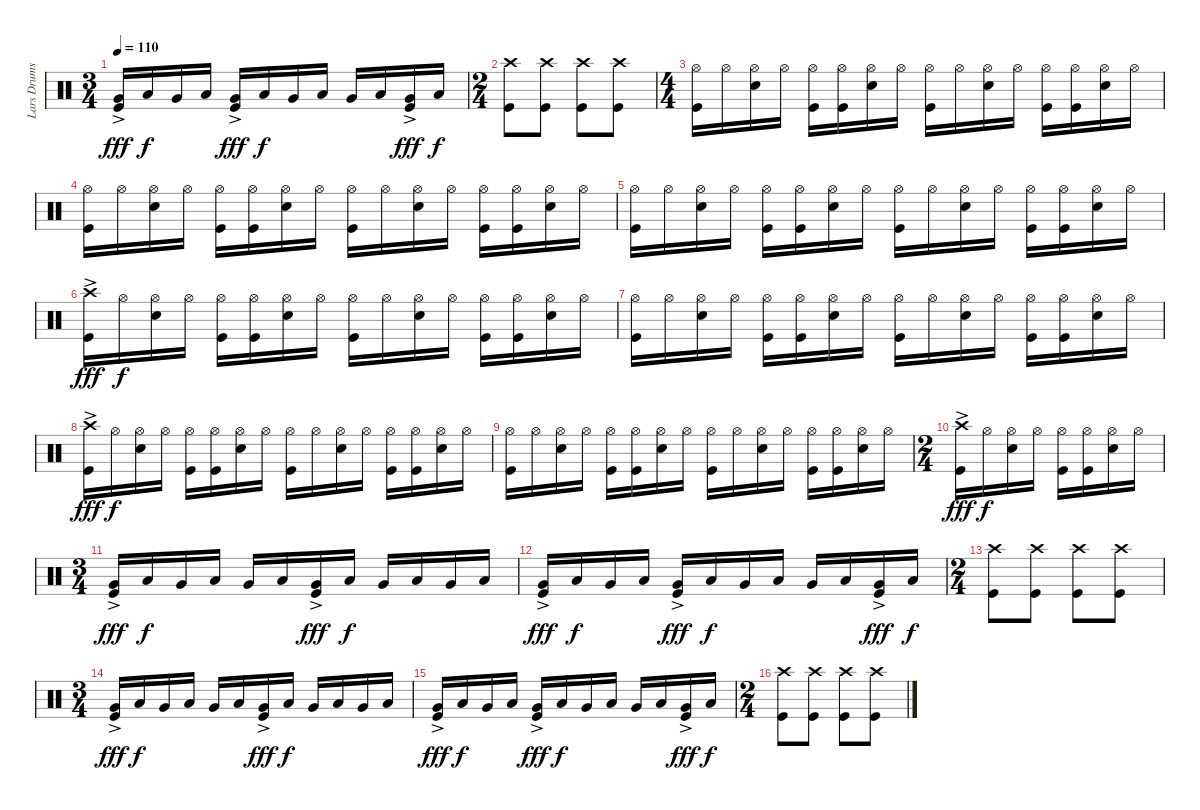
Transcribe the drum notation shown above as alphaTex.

\track ("Lars Drums" "Lars Drums") {instrument percussion}
\staff {score}
\articulation defaults
\ts (3 4)
\tempo 110
\clef neutral
\ks c
("Kick (hit)"{ac} "Very Low Tom (hit)").16{dy fff} "Low Floor Tom (hit)".16{dy f} "Very Low Tom (hit)".16 "Low Floor Tom (hit)".16 ("Kick (hit)"{ac} "Very Low Tom (hit)").16{dy fff} "Low Floor Tom (hit)".16{dy f} "Very Low Tom (hit)".16 "Low Floor Tom (hit)".16 "Very Low Tom (hit)".16 "Low Floor Tom (hit)".16 ("Kick (hit)"{ac} "Very Low Tom (hit)").16{dy fff} "Low Floor Tom (hit)".16{dy f} |
\ts (2 4)
("Crash high (hit)" "Kick (hit)").8 ("Crash high (hit)" "Kick (hit)").8 ("Crash high (hit)" "Kick (hit)").8 ("Crash high (hit)" "Kick (hit)").8 |
\ts (4 4)
("Hi-Hat (open)" "Kick (hit)").16 "Hi-Hat (open)".16 ("Hi-Hat (open)" "Electric Snare (hit)").16 "Hi-Hat (open)".16 ("Hi-Hat (open)" "Kick (hit)").16 ("Hi-Hat (open)" "Kick (hit)").16 ("Hi-Hat (open)" "Electric Snare (hit)").16 "Hi-Hat (open)".16 ("Hi-Hat (open)" "Kick (hit)").16 "Hi-Hat (open)".16 ("Hi-Hat (open)" "Electric Snare (hit)").16 "Hi-Hat (open)".16 ("Hi-Hat (open)" "Kick (hit)").16 ("Hi-Hat (open)" "Kick (hit)").16 ("Hi-Hat (open)" "Electric Snare (hit)").16 "Hi-Hat (open)".16 |
("Hi-Hat (open)" "Kick (hit)").16 "Hi-Hat (open)".16 ("Hi-Hat (open)" "Electric Snare (hit)").16 "Hi-Hat (open)".16 ("Hi-Hat (open)" "Kick (hit)").16 ("Hi-Hat (open)" "Kick (hit)").16 ("Hi-Hat (open)" "Electric Snare (hit)").16 "Hi-Hat (open)".16 ("Hi-Hat (open)" "Kick (hit)").16 "Hi-Hat (open)".16 ("Hi-Hat (open)" "Electric Snare (hit)").16 "Hi-Hat (open)".16 ("Hi-Hat (open)" "Kick (hit)").16 ("Hi-Hat (open)" "Kick (hit)").16 ("Hi-Hat (open)" "Electric Snare (hit)").16 "Hi-Hat (open)".16 |
("Hi-Hat (open)" "Kick (hit)").16 "Hi-Hat (open)".16 ("Hi-Hat (open)" "Electric Snare (hit)").16 "Hi-Hat (open)".16 ("Hi-Hat (open)" "Kick (hit)").16 ("Hi-Hat (open)" "Kick (hit)").16 ("Hi-Hat (open)" "Electric Snare (hit)").16 "Hi-Hat (open)".16 ("Hi-Hat (open)" "Kick (hit)").16 "Hi-Hat (open)".16 ("Hi-Hat (open)" "Electric Snare (hit)").16 "Hi-Hat (open)".16 ("Hi-Hat (open)" "Kick (hit)").16 ("Hi-Hat (open)" "Kick (hit)").16 ("Hi-Hat (open)" "Electric Snare (hit)").16 "Hi-Hat (open)".16 |
("Crash high (hit)" "Kick (hit)"{ac}).16{dy fff} "Hi-Hat (open)".16{dy f} ("Hi-Hat (open)" "Electric Snare (hit)").16 "Hi-Hat (open)".16 ("Hi-Hat (open)" "Kick (hit)").16 ("Hi-Hat (open)" "Kick (hit)").16 ("Hi-Hat (open)" "Electric Snare (hit)").16 "Hi-Hat (open)".16 ("Hi-Hat (open)" "Kick (hit)").16 "Hi-Hat (open)".16 ("Hi-Hat (open)" "Electric Snare (hit)").16 "Hi-Hat (open)".16 ("Hi-Hat (open)" "Kick (hit)").16 ("Hi-Hat (open)" "Kick (hit)").16 ("Hi-Hat (open)" "Electric Snare (hit)").16 "Hi-Hat (open)".16 |
("Hi-Hat (open)" "Kick (hit)").16 "Hi-Hat (open)".16 ("Hi-Hat (open)" "Electric Snare (hit)").16 "Hi-Hat (open)".16 ("Hi-Hat (open)" "Kick (hit)").16 ("Hi-Hat (open)" "Kick (hit)").16 ("Hi-Hat (open)" "Electric Snare (hit)").16 "Hi-Hat (open)".16 ("Hi-Hat (open)" "Kick (hit)").16 "Hi-Hat (open)".16 ("Hi-Hat (open)" "Electric Snare (hit)").16 "Hi-Hat (open)".16 ("Hi-Hat (open)" "Kick (hit)").16 ("Hi-Hat (open)" "Kick (hit)").16 ("Hi-Hat (open)" "Electric Snare (hit)").16 "Hi-Hat (open)".16 |
("Crash high (hit)" "Kick (hit)"{ac}).16{dy fff} "Hi-Hat (open)".16{dy f} ("Hi-Hat (open)" "Electric Snare (hit)").16 "Hi-Hat (open)".16 ("Hi-Hat (open)" "Kick (hit)").16 ("Hi-Hat (open)" "Kick (hit)").16 ("Hi-Hat (open)" "Electric Snare (hit)").16 "Hi-Hat (open)".16 ("Hi-Hat (open)" "Kick (hit)").16 "Hi-Hat (open)".16 ("Hi-Hat (open)" "Electric Snare (hit)").16 "Hi-Hat (open)".16 ("Hi-Hat (open)" "Kick (hit)").16 ("Hi-Hat (open)" "Kick (hit)").16 ("Hi-Hat (open)" "Electric Snare (hit)").16 "Hi-Hat (open)".16 |
("Hi-Hat (open)" "Kick (hit)").16 "Hi-Hat (open)".16 ("Hi-Hat (open)" "Electric Snare (hit)").16 "Hi-Hat (open)".16 ("Hi-Hat (open)" "Kick (hit)").16 ("Hi-Hat (open)" "Kick (hit)").16 ("Hi-Hat (open)" "Electric Snare (hit)").16 "Hi-Hat (open)".16 ("Hi-Hat (open)" "Kick (hit)").16 "Hi-Hat (open)".16 ("Hi-Hat (open)" "Electric Snare (hit)").16 "Hi-Hat (open)".16 ("Hi-Hat (open)" "Kick (hit)").16 ("Hi-Hat (open)" "Kick (hit)").16 ("Hi-Hat (open)" "Electric Snare (hit)").16 "Hi-Hat (open)".16 |
\ts (2 4)
("Crash high (hit)" "Kick (hit)"{ac}).16{dy fff} "Hi-Hat (open)".16{dy f} ("Hi-Hat (open)" "Electric Snare (hit)").16 "Hi-Hat (open)".16 ("Hi-Hat (open)" "Kick (hit)").16 ("Hi-Hat (open)" "Kick (hit)").16 ("Hi-Hat (open)" "Electric Snare (hit)").16 "Hi-Hat (open)".16 |
\ts (3 4)
("Kick (hit)"{ac} "Very Low Tom (hit)").16{dy fff} "Low Floor Tom (hit)".16{dy f} "Very Low Tom (hit)".16 "Low Floor Tom (hit)".16 "Very Low Tom (hit)".16 "Low Floor Tom (hit)".16 ("Kick (hit)"{ac} "Very Low Tom (hit)").16{dy fff} "Low Floor Tom (hit)".16{dy f} "Very Low Tom (hit)".16 "Low Floor Tom (hit)".16 "Very Low Tom (hit)".16 "Low Floor Tom (hit)".16 |
("Kick (hit)"{ac} "Very Low Tom (hit)").16{dy fff} "Low Floor Tom (hit)".16{dy f} "Very Low Tom (hit)".16 "Low Floor Tom (hit)".16 ("Kick (hit)"{ac} "Very Low Tom (hit)").16{dy fff} "Low Floor Tom (hit)".16{dy f} "Very Low Tom (hit)".16 "Low Floor Tom (hit)".16 "Very Low Tom (hit)".16 "Low Floor Tom (hit)".16 ("Kick (hit)"{ac} "Very Low Tom (hit)").16{dy fff} "Low Floor Tom (hit)".16{dy f} |
\ts (2 4)
("Crash high (hit)" "Kick (hit)").8 ("Crash high (hit)" "Kick (hit)").8 ("Crash high (hit)" "Kick (hit)").8 ("Crash high (hit)" "Kick (hit)").8 |
\ts (3 4)
("Kick (hit)"{ac} "Very Low Tom (hit)").16{dy fff} "Low Floor Tom (hit)".16{dy f} "Very Low Tom (hit)".16 "Low Floor Tom (hit)".16 "Very Low Tom (hit)".16 "Low Floor Tom (hit)".16 ("Kick (hit)"{ac} "Very Low Tom (hit)").16{dy fff} "Low Floor Tom (hit)".16{dy f} "Very Low Tom (hit)".16 "Low Floor Tom (hit)".16 "Very Low Tom (hit)".16 "Low Floor Tom (hit)".16 |
("Kick (hit)"{ac} "Very Low Tom (hit)").16{dy fff} "Low Floor Tom (hit)".16{dy f} "Very Low Tom (hit)".16 "Low Floor Tom (hit)".16 ("Kick (hit)"{ac} "Very Low Tom (hit)").16{dy fff} "Low Floor Tom (hit)".16{dy f} "Very Low Tom (hit)".16 "Low Floor Tom (hit)".16 "Very Low Tom (hit)".16 "Low Floor Tom (hit)".16 ("Kick (hit)"{ac} "Very Low Tom (hit)").16{dy fff} "Low Floor Tom (hit)".16{dy f} |
\ts (2 4)
("Crash high (hit)" "Kick (hit)").8 ("Crash high (hit)" "Kick (hit)").8 ("Crash high (hit)" "Kick (hit)").8 ("Crash high (hit)" "Kick (hit)").8
